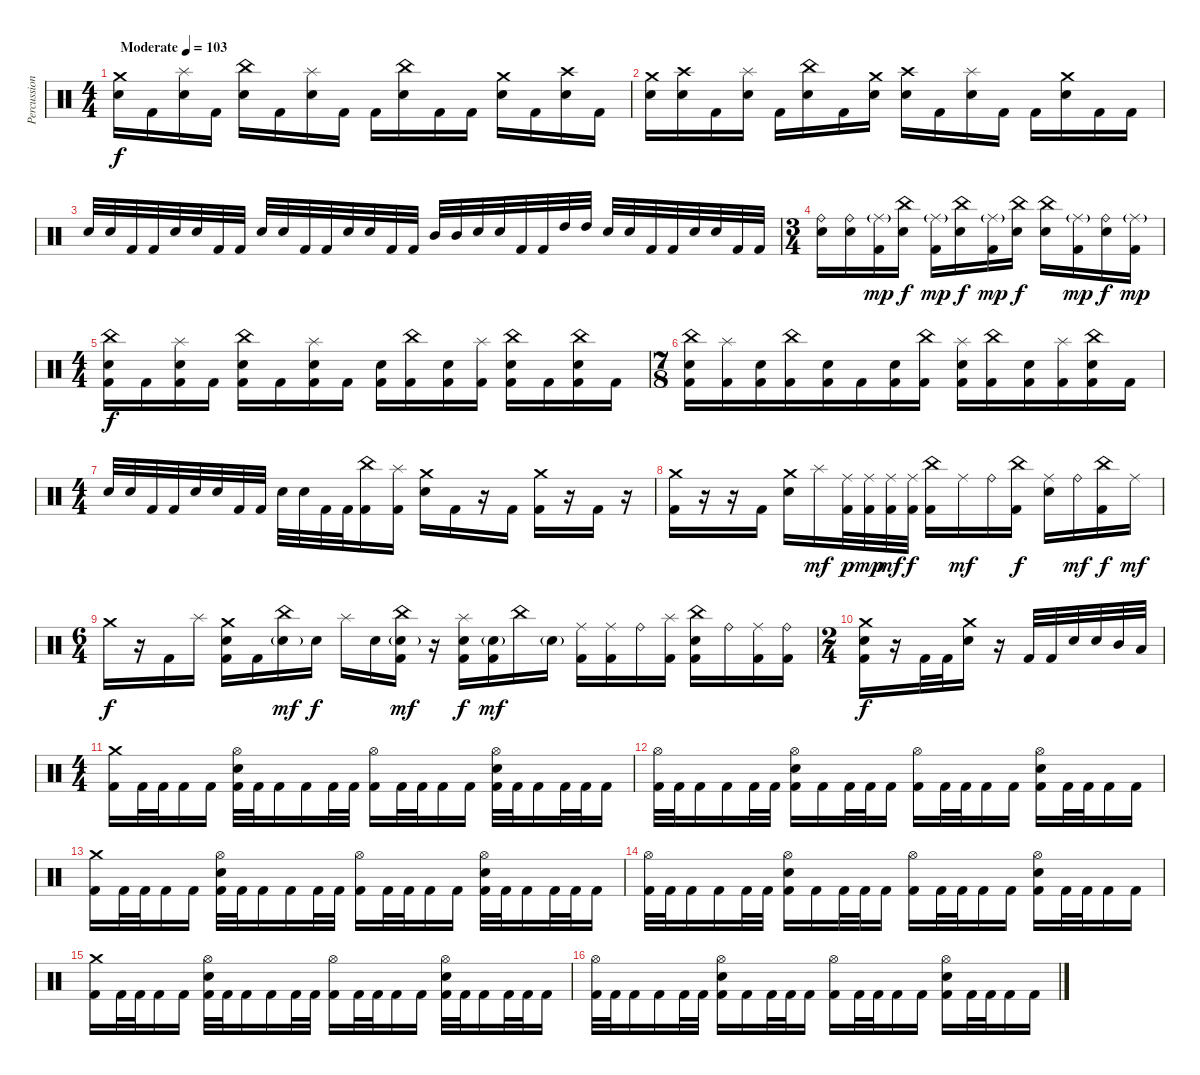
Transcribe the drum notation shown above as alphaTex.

\track ("Percussion" "Percussion") {instrument percussion}
\staff {score}
\articulation defaults
\ts (4 4)
\tempo (103 "Moderate")
\clef neutral
\ks c
("Crash medium (hit)" "Electric Snare (hit)").16{dy f} "Kick (hit) 2".16 ("Splash (hit)" "Electric Snare (hit)").16 "Kick (hit) 2".16 ("China (hit)" "Electric Snare (hit)").16 "Kick (hit) 2".16 ("Splash (hit)" "Electric Snare (hit)").16 "Kick (hit) 2".16 "Kick (hit) 2".16 ("China (hit)" "Electric Snare (hit)").16 "Kick (hit) 2".16 "Kick (hit) 2".16 ("Crash medium (hit)" "Electric Snare (hit)").16 "Kick (hit) 2".16 ("Crash high (hit)" "Electric Snare (hit)").16 "Kick (hit) 2".16 |
("Crash medium (hit)" "Electric Snare (hit)").16 ("Crash high (hit)" "Electric Snare (hit)").16 "Kick (hit) 2".16 ("Splash (hit)" "Electric Snare (hit)").16 "Kick (hit) 2".16 ("China (hit)" "Electric Snare (hit)").16 "Kick (hit) 2".16 ("Crash medium (hit)" "Electric Snare (hit)").16 ("Crash high (hit)" "Electric Snare (hit)").16 "Kick (hit) 2".16 ("Splash (hit)" "Electric Snare (hit)").16 "Kick (hit) 2".16 "Kick (hit) 2".16 ("Crash medium (hit)" "Electric Snare (hit)").16 "Kick (hit) 2".16 "Kick (hit) 2".16 |
"Electric Snare (hit)".32 "Electric Snare (hit)".32 "Kick (hit) 2".32 "Kick (hit) 2".32 "Electric Snare (hit)".32 "Electric Snare (hit)".32 "Kick (hit) 2".32 "Kick (hit) 2".32 "Electric Snare (hit)".32 "Electric Snare (hit)".32 "Kick (hit) 2".32 "Kick (hit) 2".32 "Electric Snare (hit)".32 "Electric Snare (hit)".32 "Kick (hit) 2".32 "Kick (hit) 2".32 "Mid Tom (hit)".32 "Mid Tom (hit)".32 "Electric Snare (hit)".32 "Electric Snare (hit)".32 "Kick (hit) 2".32 "Kick (hit) 2".32 "High Tom (hit)".32 "High Tom (hit)".32 "Electric Snare (hit)".32 "Electric Snare (hit)".32 "Kick (hit) 2".32 "Kick (hit) 2".32 "Electric Snare (hit)".32 "Electric Snare (hit)".32 "Kick (hit) 2".32 "Kick (hit) 2".32 |
\ts (3 4)
("Ride (bell)" "Electric Snare (hit)").16 ("Ride (bell)" "Electric Snare (hit)").16 ("Ride (middle)"{g} "Kick (hit) 2").16{dy mp} ("China (hit)" "Electric Snare (hit)").16{dy f} ("Ride (middle)"{g} "Kick (hit) 2").16{dy mp} ("China (hit)" "Electric Snare (hit)").16{dy f} ("Ride (middle)"{g} "Kick (hit) 2").16{dy mp} ("China (hit)" "Electric Snare (hit)").16{dy f} ("China (hit)" "Electric Snare (hit)").16 ("Ride (middle)"{g} "Kick (hit) 2").16{dy mp} ("Ride (bell)" "Electric Snare (hit)").16{dy f} ("Ride (middle)"{g} "Kick (hit) 2").16{dy mp} |
\ts (4 4)
("China (hit)" "Electric Snare (hit)" "Kick (hit) 2").16{dy f} "Kick (hit) 2".16 ("Splash (hit)" "Electric Snare (hit)" "Kick (hit) 2").16 "Kick (hit) 2".16 ("China (hit)" "Electric Snare (hit)" "Kick (hit) 2").16 "Kick (hit) 2".16 ("Splash (hit)" "Electric Snare (hit)" "Kick (hit) 2").16 "Kick (hit) 2".16 ("Electric Snare (hit)" "Kick (hit) 2").16 ("China (hit)" "Kick (hit) 2").16 ("Electric Snare (hit)" "Kick (hit) 2").16 ("Splash (hit)" "Kick (hit) 2").16 ("China (hit)" "Electric Snare (hit)" "Kick (hit) 2").16 "Kick (hit) 2".16 ("China (hit)" "Electric Snare (hit)" "Kick (hit) 2").16 "Kick (hit) 2".16 |
\ts (7 8)
("China (hit)" "Electric Snare (hit)" "Kick (hit) 2").16 ("Splash (hit)" "Kick (hit) 2").16 ("Electric Snare (hit)" "Kick (hit) 2").16 ("China (hit)" "Kick (hit) 2").16 ("Electric Snare (hit)" "Kick (hit) 2").16 "Kick (hit) 2".16 ("Electric Snare (hit)" "Kick (hit) 2").16 ("China (hit)" "Kick (hit) 2").16 ("Splash (hit)" "Electric Snare (hit)" "Kick (hit) 2").16 ("China (hit)" "Kick (hit) 2").16 ("Electric Snare (hit)" "Kick (hit) 2").16 ("Splash (hit)" "Kick (hit) 2").16 ("China (hit)" "Electric Snare (hit)" "Kick (hit) 2").16 "Kick (hit) 2".16 |
\ts (4 4)
"Electric Snare (hit)".32 "Electric Snare (hit)".32 "Kick (hit) 2".32 "Kick (hit) 2".32 "Electric Snare (hit)".32 "Electric Snare (hit)".32 "Kick (hit) 2".32 "Kick (hit) 2".32 "Electric Snare (hit)".32 "Electric Snare (hit)".32 "Kick (hit) 2".32 "Kick (hit) 2".32 ("China (hit)" "Kick (hit) 2").16 ("Splash (hit)" "Kick (hit) 2").16 ("Crash medium (hit)" "Electric Snare (hit)").16 "Kick (hit) 2".16 r.16 "Kick (hit) 2".16 ("Crash medium (hit)" "Kick (hit) 2").16 r.16 "Kick (hit) 2".16 r.16 |
("Crash medium (hit)" "Kick (hit) 2").16 r.16 r.16 "Kick (hit) 2".16 ("Crash medium (hit)" "Electric Snare (hit)").16 "Splash (hit)".16{dy mf} ("Ride (middle)" "Kick (hit) 2").32{dy p} ("Ride (middle)" "Kick (hit) 2").32{dy mp} ("Ride (middle)" "Kick (hit) 2").32{dy mf} ("Ride (middle)" "Kick (hit) 2").32{dy f} ("China (hit)" "Kick (hit) 2").16 "Ride (middle)".16{dy mf} "Ride (bell)".16 ("China (hit)" "Kick (hit) 2").16{dy f} ("Ride (middle)" "Electric Snare (hit)").16 "Ride (bell)".16{dy mf} ("China (hit)" "Kick (hit) 2").16{dy f} "Ride (middle)".16{dy mf} |
\ts (6 4)
"Crash medium (hit)".16{dy f} r.16 "Kick (hit) 2".16 "Splash (hit)".16 ("Crash medium (hit)" "Electric Snare (hit)" "Kick (hit) 2").16 "Kick (hit) 2".16 ("China (hit)" "Electric Snare (hit)"{g}).16{dy mf} "Electric Snare (hit)".16{dy f} "Splash (hit)".16 "Electric Snare (hit)".16 ("China (hit)" "Electric Snare (hit)"{g} "Kick (hit) 2").16{dy mf} r.16 ("Splash (hit)" "Electric Snare (hit)" "Kick (hit) 2").16{dy f} ("Electric Snare (hit)"{g} "Kick (hit) 2").16{dy mf} "China (hit)".16 "Electric Snare (hit)"{g}.16 ("Ride (middle)" "Kick (hit) 2").16 ("Ride (middle)" "Kick (hit) 2").16 "Ride (bell)".16 ("Splash (hit)" "Kick (hit) 2").16 ("China (hit)" "Electric Snare (hit)" "Kick (hit) 2").16 "Ride (bell)".16 ("Ride (middle)" "Kick (hit) 2").16 ("Ride (bell)" "Kick (hit) 2").16 |
\ts (2 4)
("Crash medium (hit)" "Electric Snare (hit)" "Kick (hit) 2").16{dy f} r.16 "Kick (hit) 2".32 "Kick (hit) 2".32 ("Crash medium (hit)" "Electric Snare (hit)").16 r.16 "Kick (hit) 2".32 "Kick (hit) 2".32 "Electric Snare (hit)".32 "Electric Snare (hit)".32 "Mid Tom (hit)".32 "Low Tom (hit)".32 |
\ts (4 4)
("Crash medium (hit)" "Kick (hit) 2").16 "Kick (hit) 2".32 "Kick (hit) 2".32 "Kick (hit) 2".16 "Kick (hit) 2".16 ("Hi-Hat (open)" "Electric Snare (hit)" "Kick (hit) 2").32 "Kick (hit) 2".32 "Kick (hit) 2".16 "Kick (hit) 2".16 "Kick (hit) 2".32 "Kick (hit) 2".32 ("Hi-Hat (open)" "Kick (hit) 2").16 "Kick (hit) 2".32 "Kick (hit) 2".32 "Kick (hit) 2".16 "Kick (hit) 2".16 ("Hi-Hat (open)" "Electric Snare (hit)" "Kick (hit) 2").32 "Kick (hit) 2".32 "Kick (hit) 2".16 "Kick (hit) 2".32 "Kick (hit) 2".32 "Kick (hit) 2".16 |
("Hi-Hat (open)" "Kick (hit) 2").32 "Kick (hit) 2".32 "Kick (hit) 2".16 "Kick (hit) 2".16 "Kick (hit) 2".32 "Kick (hit) 2".32 ("Hi-Hat (open)" "Electric Snare (hit)" "Kick (hit) 2").16 "Kick (hit) 2".16 "Kick (hit) 2".32 "Kick (hit) 2".32 "Kick (hit) 2".16 ("Hi-Hat (open)" "Kick (hit) 2").16 "Kick (hit) 2".32 "Kick (hit) 2".32 "Kick (hit) 2".16 "Kick (hit) 2".16 ("Hi-Hat (open)" "Electric Snare (hit)" "Kick (hit) 2").16 "Kick (hit) 2".32 "Kick (hit) 2".32 "Kick (hit) 2".16 "Kick (hit) 2".16 |
("Crash medium (hit)" "Kick (hit) 2").16 "Kick (hit) 2".32 "Kick (hit) 2".32 "Kick (hit) 2".16 "Kick (hit) 2".16 ("Hi-Hat (open)" "Electric Snare (hit)" "Kick (hit) 2").32 "Kick (hit) 2".32 "Kick (hit) 2".16 "Kick (hit) 2".16 "Kick (hit) 2".32 "Kick (hit) 2".32 ("Hi-Hat (open)" "Kick (hit) 2").16 "Kick (hit) 2".32 "Kick (hit) 2".32 "Kick (hit) 2".16 "Kick (hit) 2".16 ("Hi-Hat (open)" "Electric Snare (hit)" "Kick (hit) 2").32 "Kick (hit) 2".32 "Kick (hit) 2".16 "Kick (hit) 2".32 "Kick (hit) 2".32 "Kick (hit) 2".16 |
("Hi-Hat (open)" "Kick (hit) 2").32 "Kick (hit) 2".32 "Kick (hit) 2".16 "Kick (hit) 2".16 "Kick (hit) 2".32 "Kick (hit) 2".32 ("Hi-Hat (open)" "Electric Snare (hit)" "Kick (hit) 2").16 "Kick (hit) 2".16 "Kick (hit) 2".32 "Kick (hit) 2".32 "Kick (hit) 2".16 ("Hi-Hat (open)" "Kick (hit) 2").16 "Kick (hit) 2".32 "Kick (hit) 2".32 "Kick (hit) 2".16 "Kick (hit) 2".16 ("Hi-Hat (open)" "Electric Snare (hit)" "Kick (hit) 2").16 "Kick (hit) 2".32 "Kick (hit) 2".32 "Kick (hit) 2".16 "Kick (hit) 2".16 |
("Crash medium (hit)" "Kick (hit) 2").16 "Kick (hit) 2".32 "Kick (hit) 2".32 "Kick (hit) 2".16 "Kick (hit) 2".16 ("Hi-Hat (open)" "Electric Snare (hit)" "Kick (hit) 2").32 "Kick (hit) 2".32 "Kick (hit) 2".16 "Kick (hit) 2".16 "Kick (hit) 2".32 "Kick (hit) 2".32 ("Hi-Hat (open)" "Kick (hit) 2").16 "Kick (hit) 2".32 "Kick (hit) 2".32 "Kick (hit) 2".16 "Kick (hit) 2".16 ("Hi-Hat (open)" "Electric Snare (hit)" "Kick (hit) 2").32 "Kick (hit) 2".32 "Kick (hit) 2".16 "Kick (hit) 2".32 "Kick (hit) 2".32 "Kick (hit) 2".16 |
("Hi-Hat (open)" "Kick (hit) 2").32 "Kick (hit) 2".32 "Kick (hit) 2".16 "Kick (hit) 2".16 "Kick (hit) 2".32 "Kick (hit) 2".32 ("Hi-Hat (open)" "Electric Snare (hit)" "Kick (hit) 2").16 "Kick (hit) 2".16 "Kick (hit) 2".32 "Kick (hit) 2".32 "Kick (hit) 2".16 ("Hi-Hat (open)" "Kick (hit) 2").16 "Kick (hit) 2".32 "Kick (hit) 2".32 "Kick (hit) 2".16 "Kick (hit) 2".16 ("Hi-Hat (open)" "Electric Snare (hit)" "Kick (hit) 2").16 "Kick (hit) 2".32 "Kick (hit) 2".32 "Kick (hit) 2".16 "Kick (hit) 2".16
